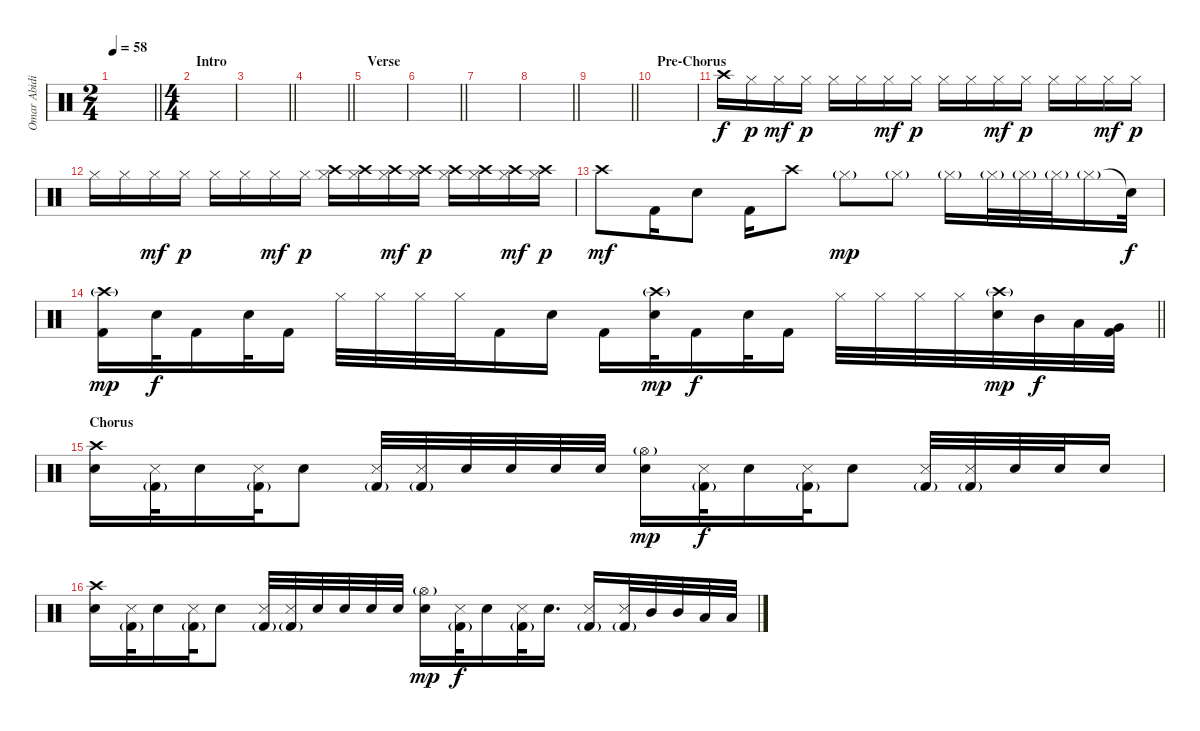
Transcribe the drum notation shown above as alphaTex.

\track ("Omar Abidi" "Omar Abidi") {instrument percussion}
\staff {score}
\articulation defaults
\ts (2 4)
\tempo 58
\clef neutral
\barLineRight lightlight
\ks c
|
\ts (4 4)
\section ("" "Intro")
|
\barLineRight lightlight
|
\barLineRight lightlight
|
\section ("" "Verse")
|
\barLineRight lightlight
|
|
\barLineRight lightlight
|
\barLineRight lightlight
|
\section ("" "Pre-Chorus")
|
"Crash high (hit)".16 "Hi-Hat (closed)".16{dy p} "Hi-Hat (closed)".16{dy mf} "Hi-Hat (closed)".16{dy p} "Hi-Hat (closed)".16 "Hi-Hat (closed)".16 "Hi-Hat (closed)".16{dy mf} "Hi-Hat (closed)".16{dy p} "Hi-Hat (closed)".16 "Hi-Hat (closed)".16 "Hi-Hat (closed)".16{dy mf} "Hi-Hat (closed)".16{dy p} "Hi-Hat (closed)".16 "Hi-Hat (closed)".16 "Hi-Hat (closed)".16{dy mf} "Hi-Hat (closed)".16{dy p} |
"Hi-Hat (closed)".16 "Hi-Hat (closed)".16 "Hi-Hat (closed)".16{dy mf} "Hi-Hat (closed)".16{dy p} "Hi-Hat (closed)".16 "Hi-Hat (closed)".16 "Hi-Hat (closed)".16{dy mf} "Hi-Hat (closed)".16{dy p} ("Crash high (hit)" "Hi-Hat (closed)").16 ("Crash high (hit)" "Hi-Hat (closed)").16 ("Crash high (hit)" "Hi-Hat (closed)").16{dy mf} ("Crash high (hit)" "Hi-Hat (closed)").16{dy p} ("Crash high (hit)" "Hi-Hat (closed)").16 ("Crash high (hit)" "Hi-Hat (closed)").16 ("Crash high (hit)" "Hi-Hat (closed)").16{dy mf} ("Crash high (hit)" "Hi-Hat (closed)").16{dy p} |
"Crash high (hit)".8{dy mf} "Kick (hit) 2".16 "Electric Snare (hit)".8 "Kick (hit) 2".16 "Crash high (hit)".8 "Hi-Hat (closed)"{g}.8{dy mp} "Hi-Hat (closed)"{g}.8 "Hi-Hat (closed)"{g}.16 "Hi-Hat (closed)"{g}.32 "Hi-Hat (closed)"{g}.32 "Hi-Hat (closed)"{g}.32 "Hi-Hat (closed)"{g}.16 "Snare (hit)"{t}.32{dy f} |
\barLineRight lightlight
("Crash high (hit)"{g} "Kick (hit) 2").16{dy mp} "Electric Snare (hit)".32{dy f} "Kick (hit) 2".16 "Electric Snare (hit)".32 "Kick (hit) 2".16 "Hi-Hat (closed)".32 "Hi-Hat (closed)".32 "Hi-Hat (closed)".32 "Hi-Hat (closed)".32 "Kick (hit) 2".16 "Electric Snare (hit)".16 "Kick (hit) 2".16 ("Crash high (hit)"{g} "Electric Snare (hit)").32{dy mp} "Kick (hit) 2".16{dy f} "Electric Snare (hit)".32 "Kick (hit) 2".16 "Hi-Hat (closed)".32 "Hi-Hat (closed)".32 "Hi-Hat (closed)".32 "Hi-Hat (closed)".32 ("Crash high (hit)"{g} "Electric Snare (hit)").32{dy mp} "Mid Tom (hit)".32{dy f} "Low Tom (hit)".32 ("Very Low Tom (hit)" "Kick (hit) 2").32 |
\section ("" "Chorus")
("Crash high (hit)" "Electric Snare (hit)").16 ("Metronome (hit)" "Kick (hit) 2"{g}).32 "Electric Snare (hit)".16 ("Metronome (hit)" "Kick (hit) 2"{g}).32 "Electric Snare (hit)".8 ("Metronome (hit)" "Kick (hit) 2"{g}).32 ("Metronome (hit)" "Kick (hit) 2"{g}).32 "Electric Snare (hit)".32 "Electric Snare (hit)".32 "Electric Snare (hit)".32 "Electric Snare (hit)".32 ("Hi-Hat (open)"{g} "Electric Snare (hit)").16{dy mp} ("Metronome (hit)" "Kick (hit) 2"{g}).32{dy f} "Electric Snare (hit)".16 ("Metronome (hit)" "Kick (hit) 2"{g}).32 "Electric Snare (hit)".8 ("Metronome (hit)" "Kick (hit) 2"{g}).32 ("Metronome (hit)" "Kick (hit) 2"{g}).32 "Electric Snare (hit)".32 "Electric Snare (hit)".32 "Electric Snare (hit)".16 |
("Crash high (hit)" "Electric Snare (hit)").16 ("Metronome (hit)" "Kick (hit) 2"{g}).32 "Electric Snare (hit)".16 ("Metronome (hit)" "Kick (hit) 2"{g}).32 "Electric Snare (hit)".8 ("Metronome (hit)" "Kick (hit) 2"{g}).32 ("Metronome (hit)" "Kick (hit) 2"{g}).32 "Electric Snare (hit)".32 "Electric Snare (hit)".32 "Electric Snare (hit)".32 "Electric Snare (hit)".32 ("Hi-Hat (open)"{g} "Electric Snare (hit)").16{dy mp} ("Metronome (hit)" "Kick (hit) 2"{g}).32{dy f} "Electric Snare (hit)".16 ("Metronome (hit)" "Kick (hit) 2"{g}).32 "Electric Snare (hit)".16{d} ("Metronome (hit)" "Kick (hit) 2"{g}).16 ("Metronome (hit)" "Kick (hit) 2"{g}).32 "Mid Tom (hit)".32 "Mid Tom (hit)".32 "Low Tom (hit)".32 "Low Tom (hit)".32
